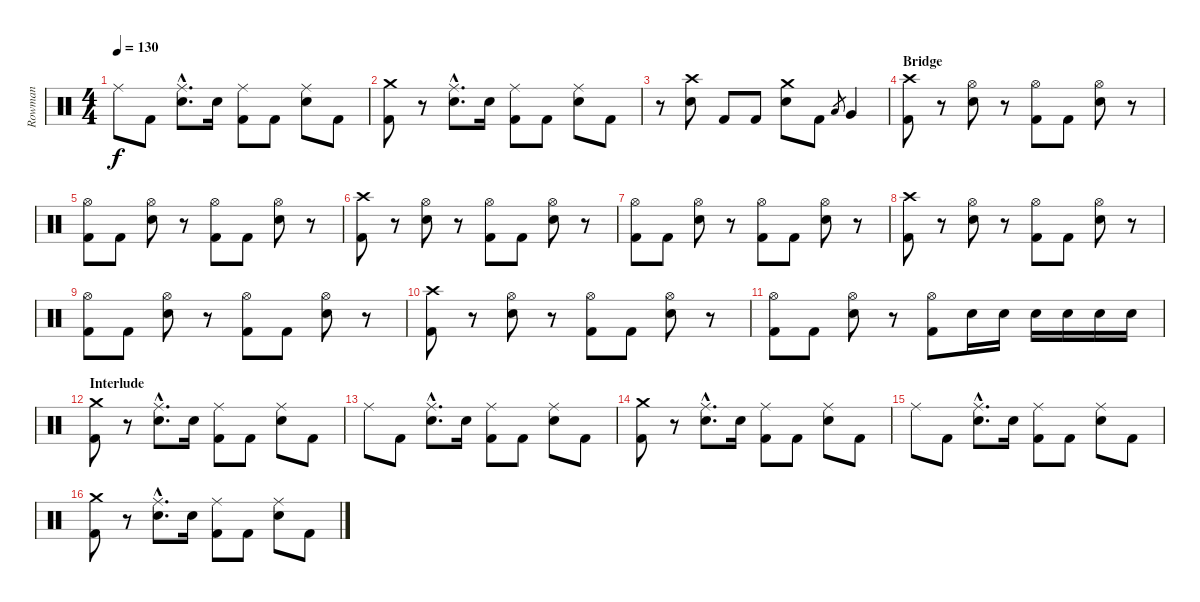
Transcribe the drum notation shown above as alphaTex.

\track ("Rowman" "Rowman") {instrument percussion}
\staff {score}
\articulation defaults
\ts (4 4)
\tempo 130
\clef neutral
\ks c "Ride (middle)".8{dy f} "Kick (hit) 2".8
("Electric Snare (hit)"{hac} "Ride (middle)"{hac}).8{d} "Electric Snare (hit)".16 ("Kick (hit) 2" "Ride (middle)").8 "Kick (hit) 2".8 ("Electric Snare (hit)" "Ride (middle)").8 "Kick (hit) 2".8 |
("Kick (hit) 2" "Crash medium (hit)").8 r.8 ("Electric Snare (hit)"{hac} "Ride (middle)"{hac}).8{d} "Electric Snare (hit)".16 ("Kick (hit) 2" "Ride (middle)").8 "Kick (hit) 2".8 ("Electric Snare (hit)" "Ride (middle)").8 "Kick (hit) 2".8 |
r.8 ("Electric Snare (hit)" "Crash high (hit)").8 "Kick (hit) 2".8 "Kick (hit) 2".8 ("Electric Snare (hit)" "Crash medium (hit)").8 "Kick (hit) 2".8 "Low Tom (hit)".8{gr} "Very Low Tom (hit)".4 |
\section ("" "Bridge")
("Kick (hit) 2" "Crash high (hit)").8 r.8 ("Electric Snare (hit)" "Hi-Hat (open)").8 r.8 ("Kick (hit) 2" "Hi-Hat (open)").8 "Kick (hit) 2".8 ("Electric Snare (hit)" "Hi-Hat (open)").8 r.8 |
("Kick (hit) 2" "Hi-Hat (open)").8 "Kick (hit) 2".8 ("Electric Snare (hit)" "Hi-Hat (open)").8 r.8 ("Kick (hit) 2" "Hi-Hat (open)").8 "Kick (hit) 2".8 ("Electric Snare (hit)" "Hi-Hat (open)").8 r.8 |
("Kick (hit) 2" "Crash high (hit)").8 r.8 ("Electric Snare (hit)" "Hi-Hat (open)").8 r.8 ("Kick (hit) 2" "Hi-Hat (open)").8 "Kick (hit) 2".8 ("Electric Snare (hit)" "Hi-Hat (open)").8 r.8 |
("Kick (hit) 2" "Hi-Hat (open)").8 "Kick (hit) 2".8 ("Electric Snare (hit)" "Hi-Hat (open)").8 r.8 ("Kick (hit) 2" "Hi-Hat (open)").8 "Kick (hit) 2".8 ("Electric Snare (hit)" "Hi-Hat (open)").8 r.8 |
("Kick (hit) 2" "Crash high (hit)").8 r.8 ("Electric Snare (hit)" "Hi-Hat (open)").8 r.8 ("Kick (hit) 2" "Hi-Hat (open)").8 "Kick (hit) 2".8 ("Electric Snare (hit)" "Hi-Hat (open)").8 r.8 |
("Kick (hit) 2" "Hi-Hat (open)").8 "Kick (hit) 2".8 ("Electric Snare (hit)" "Hi-Hat (open)").8 r.8 ("Kick (hit) 2" "Hi-Hat (open)").8 "Kick (hit) 2".8 ("Electric Snare (hit)" "Hi-Hat (open)").8 r.8 |
("Kick (hit) 2" "Crash high (hit)").8 r.8 ("Electric Snare (hit)" "Hi-Hat (open)").8 r.8 ("Kick (hit) 2" "Hi-Hat (open)").8 "Kick (hit) 2".8 ("Electric Snare (hit)" "Hi-Hat (open)").8 r.8 |
("Kick (hit) 2" "Hi-Hat (open)").8 "Kick (hit) 2".8 ("Electric Snare (hit)" "Hi-Hat (open)").8 r.8 ("Kick (hit) 2" "Hi-Hat (open)").8 "Electric Snare (hit)".16 "Electric Snare (hit)".16 "Electric Snare (hit)".16 "Electric Snare (hit)".16 "Electric Snare (hit)".16 "Electric Snare (hit)".16 |
\section ("" "Interlude")
("Kick (hit) 2" "Crash medium (hit)").8 r.8 ("Electric Snare (hit)"{hac} "Ride (middle)"{hac}).8{d} "Electric Snare (hit)".16 ("Kick (hit) 2" "Ride (middle)").8 "Kick (hit) 2".8 ("Electric Snare (hit)" "Ride (middle)").8 "Kick (hit) 2".8 |
"Ride (middle)".8 "Kick (hit) 2".8 ("Electric Snare (hit)"{hac} "Ride (middle)"{hac}).8{d} "Electric Snare (hit)".16 ("Kick (hit) 2" "Ride (middle)").8 "Kick (hit) 2".8 ("Electric Snare (hit)" "Ride (middle)").8 "Kick (hit) 2".8 |
("Kick (hit) 2" "Crash medium (hit)").8 r.8 ("Electric Snare (hit)"{hac} "Ride (middle)"{hac}).8{d} "Electric Snare (hit)".16 ("Kick (hit) 2" "Ride (middle)").8 "Kick (hit) 2".8 ("Electric Snare (hit)" "Ride (middle)").8 "Kick (hit) 2".8 |
"Ride (middle)".8 "Kick (hit) 2".8 ("Electric Snare (hit)"{hac} "Ride (middle)"{hac}).8{d} "Electric Snare (hit)".16 ("Kick (hit) 2" "Ride (middle)").8 "Kick (hit) 2".8 ("Electric Snare (hit)" "Ride (middle)").8 "Kick (hit) 2".8 |
("Kick (hit) 2" "Crash medium (hit)").8 r.8 ("Electric Snare (hit)"{hac} "Ride (middle)"{hac}).8{d} "Electric Snare (hit)".16 ("Kick (hit) 2" "Ride (middle)").8 "Kick (hit) 2".8 ("Electric Snare (hit)" "Ride (middle)").8 "Kick (hit) 2".8
